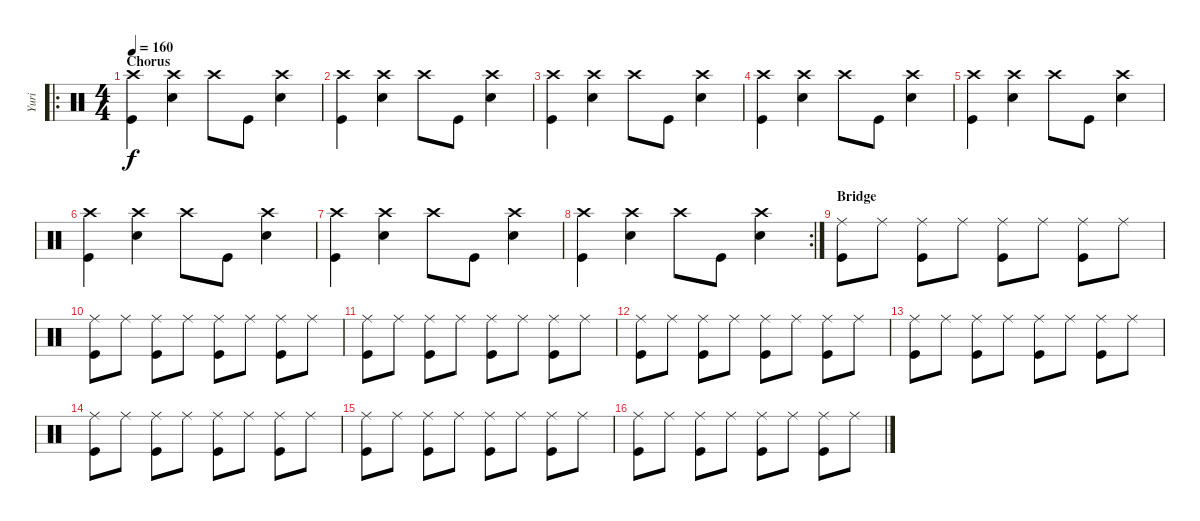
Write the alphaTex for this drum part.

\track ("Yuri" "Yuri") {instrument percussion}
\staff {score}
\articulation defaults
\ro
\ts (4 4)
\section ("" "Chorus")
\tempo 160
\clef neutral
\ks c
("Crash high (hit)" "Kick (hit)").4{dy f} ("Crash high (hit)" "Snare (hit) 2").4 "Crash high (hit)".8 "Kick (hit)".8 ("Crash high (hit)" "Snare (hit) 2").4 |
("Crash high (hit)" "Kick (hit)").4 ("Crash high (hit)" "Snare (hit) 2").4 "Crash high (hit)".8 "Kick (hit)".8 ("Crash high (hit)" "Snare (hit) 2").4 |
("Crash high (hit)" "Kick (hit)").4 ("Crash high (hit)" "Snare (hit) 2").4 "Crash high (hit)".8 "Kick (hit)".8 ("Crash high (hit)" "Snare (hit) 2").4 |
("Crash high (hit)" "Kick (hit)").4 ("Crash high (hit)" "Snare (hit) 2").4 "Crash high (hit)".8 "Kick (hit)".8 ("Crash high (hit)" "Snare (hit) 2").4 |
("Crash high (hit)" "Kick (hit)").4 ("Crash high (hit)" "Snare (hit) 2").4 "Crash high (hit)".8 "Kick (hit)".8 ("Crash high (hit)" "Snare (hit) 2").4 |
("Crash high (hit)" "Kick (hit)").4 ("Crash high (hit)" "Snare (hit) 2").4 "Crash high (hit)".8 "Kick (hit)".8 ("Crash high (hit)" "Snare (hit) 2").4 |
("Crash high (hit)" "Kick (hit)").4 ("Crash high (hit)" "Snare (hit) 2").4 "Crash high (hit)".8 "Kick (hit)".8 ("Crash high (hit)" "Snare (hit) 2").4 |
\rc 2
("Crash high (hit)" "Kick (hit)").4 ("Crash high (hit)" "Snare (hit) 2").4 "Crash high (hit)".8 "Kick (hit)".8 ("Crash high (hit)" "Snare (hit) 2").4 |
\section ("" "Bridge")
("Ride (middle)" "Kick (hit)").8 "Ride (middle)".8 ("Ride (middle)" "Kick (hit)").8 "Ride (middle)".8 ("Ride (middle)" "Kick (hit)").8 "Ride (middle)".8 ("Ride (middle)" "Kick (hit)").8 "Ride (middle)".8 |
("Ride (middle)" "Kick (hit)").8 "Ride (middle)".8 ("Ride (middle)" "Kick (hit)").8 "Ride (middle)".8 ("Ride (middle)" "Kick (hit)").8 "Ride (middle)".8 ("Ride (middle)" "Kick (hit)").8 "Ride (middle)".8 |
("Ride (middle)" "Kick (hit)").8 "Ride (middle)".8 ("Ride (middle)" "Kick (hit)").8 "Ride (middle)".8 ("Ride (middle)" "Kick (hit)").8 "Ride (middle)".8 ("Ride (middle)" "Kick (hit)").8 "Ride (middle)".8 |
("Ride (middle)" "Kick (hit)").8 "Ride (middle)".8 ("Ride (middle)" "Kick (hit)").8 "Ride (middle)".8 ("Ride (middle)" "Kick (hit)").8 "Ride (middle)".8 ("Ride (middle)" "Kick (hit)").8 "Ride (middle)".8 |
("Ride (middle)" "Kick (hit)").8 "Ride (middle)".8 ("Ride (middle)" "Kick (hit)").8 "Ride (middle)".8 ("Ride (middle)" "Kick (hit)").8 "Ride (middle)".8 ("Ride (middle)" "Kick (hit)").8 "Ride (middle)".8 |
("Ride (middle)" "Kick (hit)").8 "Ride (middle)".8 ("Ride (middle)" "Kick (hit)").8 "Ride (middle)".8 ("Ride (middle)" "Kick (hit)").8 "Ride (middle)".8 ("Ride (middle)" "Kick (hit)").8 "Ride (middle)".8 |
("Ride (middle)" "Kick (hit)").8 "Ride (middle)".8 ("Ride (middle)" "Kick (hit)").8 "Ride (middle)".8 ("Ride (middle)" "Kick (hit)").8 "Ride (middle)".8 ("Ride (middle)" "Kick (hit)").8 "Ride (middle)".8 |
("Ride (middle)" "Kick (hit)").8 "Ride (middle)".8 ("Ride (middle)" "Kick (hit)").8 "Ride (middle)".8 ("Ride (middle)" "Kick (hit)").8 "Ride (middle)".8 ("Ride (middle)" "Kick (hit)").8 "Ride (middle)".8
